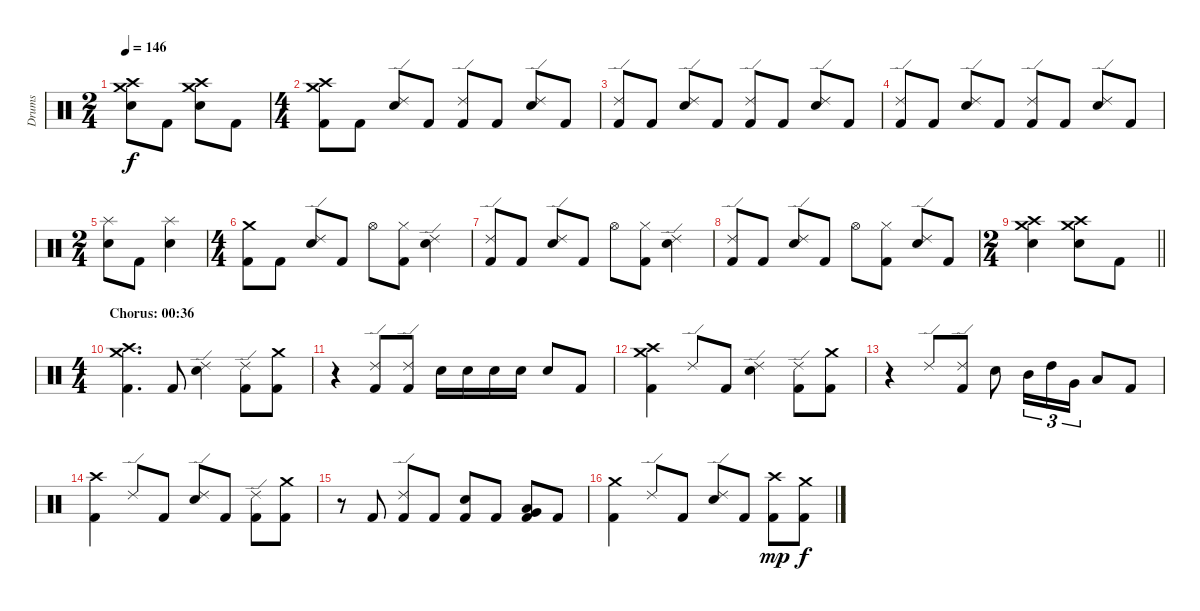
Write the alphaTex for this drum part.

\track ("Drums" "Drums") {instrument percussion}
\staff {score}
\articulation defaults
\ts (2 4)
\tempo 146
\clef neutral
\ks c
("Crash high (hit)" "Crash medium (hit)" "Electric Snare (hit)").8{dy f} "Kick (hit) 2".8 ("Crash high (hit)" "Crash medium (hit)" "Electric Snare (hit)").8 "Kick (hit) 2".8 |
\ts (4 4)
("Crash high (hit)" "Crash medium (hit)" "Kick (hit) 2").8 "Kick (hit) 2".8 ("Ride (edge) 2" "Electric Snare (hit)").8 "Kick (hit) 2".8 ("Ride (edge) 2" "Kick (hit) 2").8 "Kick (hit) 2".8 ("Ride (edge) 2" "Electric Snare (hit)").8 "Kick (hit) 2".8 |
("Ride (edge) 2" "Kick (hit) 2").8 "Kick (hit) 2".8 ("Ride (edge) 2" "Electric Snare (hit)").8 "Kick (hit) 2".8 ("Ride (edge) 2" "Kick (hit) 2").8 "Kick (hit) 2".8 ("Ride (edge) 2" "Electric Snare (hit)").8 "Kick (hit) 2".8 |
("Ride (edge) 2" "Kick (hit) 2").8 "Kick (hit) 2".8 ("Ride (edge) 2" "Electric Snare (hit)").8 "Kick (hit) 2".8 ("Ride (edge) 2" "Kick (hit) 2").8 "Kick (hit) 2".8 ("Ride (edge) 2" "Electric Snare (hit)").8 "Kick (hit) 2".8 |
\ts (2 4)
("Splash (hit)" "Electric Snare (hit)").8 "Kick (hit) 2".8 ("Splash (hit)" "Electric Snare (hit)").4 |
\ts (4 4)
("Crash medium (hit)" "Kick (hit) 2").8 "Kick (hit) 2".8 ("Ride (edge) 2" "Electric Snare (hit)").8 "Kick (hit) 2".8 "Hi-Hat (open)".8 ("Hi-Hat (closed)" "Kick (hit) 2").8 ("Ride (edge) 2" "Electric Snare (hit)").4 |
("Ride (edge) 2" "Kick (hit) 2").8 "Kick (hit) 2".8 ("Ride (edge) 2" "Electric Snare (hit)").8 "Kick (hit) 2".8 "Hi-Hat (open)".8 ("Hi-Hat (closed)" "Kick (hit) 2").8 ("Ride (edge) 2" "Electric Snare (hit)").4 |
("Ride (edge) 2" "Kick (hit) 2").8 "Kick (hit) 2".8 ("Ride (edge) 2" "Electric Snare (hit)").8 "Kick (hit) 2".8 "Hi-Hat (open)".8 ("Hi-Hat (closed)" "Kick (hit) 2").8 ("Ride (edge) 2" "Electric Snare (hit)").8 "Kick (hit) 2".8 |
\ts (2 4)
\barLineRight lightlight
("Crash high (hit)" "Crash medium (hit)" "Electric Snare (hit)").4 ("Crash high (hit)" "Crash medium (hit)" "Electric Snare (hit)").8 "Kick (hit) 2".8 |
\ts (4 4)
\section ("" "Chorus: 00:36")
("Crash high (hit)" "Crash medium (hit)" "Kick (hit) 2").4{d} "Kick (hit) 2".8 ("Ride (edge) 2" "Electric Snare (hit)").4 ("Ride (edge) 2" "Kick (hit) 2").8 ("Crash medium (hit)" "Kick (hit) 2").8 |
r.4 ("Ride (edge) 2" "Kick (hit) 2").8 ("Ride (edge) 2" "Kick (hit) 2").8 "Electric Snare (hit)".16 "Electric Snare (hit)".16 "Electric Snare (hit)".16 "Electric Snare (hit)".16 "Electric Snare (hit)".8 "Kick (hit) 2".8 |
("Crash high (hit)" "Crash medium (hit)" "Kick (hit) 2").4 "Ride (edge) 2".8 "Kick (hit) 2".8 ("Ride (edge) 2" "Electric Snare (hit)").4 ("Ride (edge) 2" "Kick (hit) 2").8 ("Crash medium (hit)" "Kick (hit) 2").8 |
r.4 "Ride (edge) 2".8 ("Ride (edge) 2" "Kick (hit) 2").8 "Electric Snare (hit)".8 "Mid Tom (hit)".16{tu (3 2)} "High Tom (hit)".16{tu (3 2)} "Very Low Tom (hit)".16{tu (3 2)} "Low Tom (hit)".8 "Kick (hit) 2".8 |
("Crash high (hit)" "Kick (hit) 2").4 "Ride (edge) 2".8 "Kick (hit) 2".8 ("Ride (edge) 2" "Electric Snare (hit)").8 "Kick (hit) 2".8 ("Ride (edge) 2" "Kick (hit) 2").8 ("Crash medium (hit)" "Kick (hit) 2").8 |
r.8 "Kick (hit) 2".8 ("Ride (edge) 2" "Kick (hit) 2").8 "Kick (hit) 2".8 ("Electric Snare (hit)" "Kick (hit) 2").8 "Kick (hit) 2".8 ("Low Tom (hit)" "Very Low Tom (hit)" "Kick (hit) 2").8 "Kick (hit) 2".8 |
("Crash medium (hit)" "Kick (hit) 2").4 "Ride (edge) 2".8 "Kick (hit) 2".8 ("Ride (edge) 2" "Electric Snare (hit)").8 "Kick (hit) 2".8 ("Crash high (hit)" "Kick (hit) 2").8{dy mp} ("Crash medium (hit)" "Kick (hit) 2").8{dy f}
